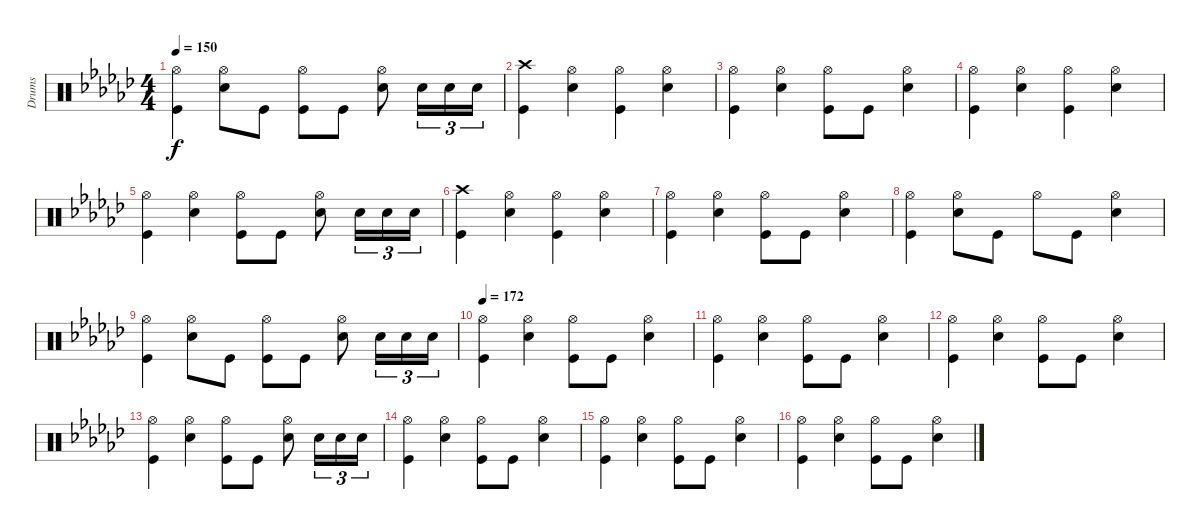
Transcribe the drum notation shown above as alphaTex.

\track ("Drums" "Drums") {instrument percussion}
\staff {score}
\articulation defaults
\ts (4 4)
\tempo 150
\clef neutral
\ks ebminor
("Hi-Hat (open)" "Kick (hit)").4{dy f} ("Hi-Hat (open)" "Snare (hit) 2").8 "Kick (hit)".8 ("Hi-Hat (open)" "Kick (hit)").8 "Kick (hit)".8 ("Hi-Hat (open)" "Snare (hit) 2").8 "Snare (hit) 2".16{tu (3 2)} "Snare (hit) 2".16{tu (3 2)} "Snare (hit) 2".16{tu (3 2)} |
("Crash high (hit)" "Kick (hit)").4 ("Hi-Hat (open)" "Snare (hit) 2").4 ("Hi-Hat (open)" "Kick (hit)").4 ("Hi-Hat (open)" "Snare (hit) 2").4 |
("Hi-Hat (open)" "Kick (hit)").4 ("Hi-Hat (open)" "Snare (hit) 2").4 ("Hi-Hat (open)" "Kick (hit)").8 "Kick (hit)".8 ("Hi-Hat (open)" "Snare (hit) 2").4 |
("Hi-Hat (open)" "Kick (hit)").4 ("Hi-Hat (open)" "Snare (hit) 2").4 ("Hi-Hat (open)" "Kick (hit)").4 ("Hi-Hat (open)" "Snare (hit) 2").4 |
("Hi-Hat (open)" "Kick (hit)").4 ("Hi-Hat (open)" "Snare (hit) 2").4 ("Hi-Hat (open)" "Kick (hit)").8 "Kick (hit)".8 ("Hi-Hat (open)" "Snare (hit) 2").8 "Snare (hit) 2".16{tu (3 2)} "Snare (hit) 2".16{tu (3 2)} "Snare (hit) 2".16{tu (3 2)} |
("Crash high (hit)" "Kick (hit)").4 ("Hi-Hat (open)" "Snare (hit) 2").4 ("Hi-Hat (open)" "Kick (hit)").4 ("Hi-Hat (open)" "Snare (hit) 2").4 |
("Hi-Hat (open)" "Kick (hit)").4 ("Hi-Hat (open)" "Snare (hit) 2").4 ("Hi-Hat (open)" "Kick (hit)").8 "Kick (hit)".8 ("Hi-Hat (open)" "Snare (hit) 2").4 |
("Hi-Hat (open)" "Kick (hit)").4 ("Hi-Hat (open)" "Snare (hit) 2").8 "Kick (hit)".8 "Hi-Hat (open)".8 "Kick (hit)".8 ("Hi-Hat (open)" "Snare (hit) 2").4 |
("Hi-Hat (open)" "Kick (hit)").4 ("Hi-Hat (open)" "Snare (hit) 2").8 "Kick (hit)".8 ("Hi-Hat (open)" "Kick (hit)").8 "Kick (hit)".8 ("Hi-Hat (open)" "Snare (hit) 2").8 "Snare (hit) 2".16{tu (3 2)} "Snare (hit) 2".16{tu (3 2)} "Snare (hit) 2".16{tu (3 2)} |
\tempo 172
("Hi-Hat (open)" "Kick (hit)").4 ("Hi-Hat (open)" "Snare (hit) 2").4 ("Hi-Hat (open)" "Kick (hit)").8 "Kick (hit)".8 ("Hi-Hat (open)" "Snare (hit) 2").4 |
("Hi-Hat (open)" "Kick (hit)").4 ("Hi-Hat (open)" "Snare (hit) 2").4 ("Hi-Hat (open)" "Kick (hit)").8 "Kick (hit)".8 ("Hi-Hat (open)" "Snare (hit) 2").4 |
("Hi-Hat (open)" "Kick (hit)").4 ("Hi-Hat (open)" "Snare (hit) 2").4 ("Hi-Hat (open)" "Kick (hit)").8 "Kick (hit)".8 ("Hi-Hat (open)" "Snare (hit) 2").4 |
("Hi-Hat (open)" "Kick (hit)").4 ("Hi-Hat (open)" "Snare (hit) 2").4 ("Hi-Hat (open)" "Kick (hit)").8 "Kick (hit)".8 ("Hi-Hat (open)" "Snare (hit) 2").8 "Snare (hit) 2".16{tu (3 2)} "Snare (hit) 2".16{tu (3 2)} "Snare (hit) 2".16{tu (3 2)} |
("Hi-Hat (open)" "Kick (hit)").4 ("Hi-Hat (open)" "Snare (hit) 2").4 ("Hi-Hat (open)" "Kick (hit)").8 "Kick (hit)".8 ("Hi-Hat (open)" "Snare (hit) 2").4 |
("Hi-Hat (open)" "Kick (hit)").4 ("Hi-Hat (open)" "Snare (hit) 2").4 ("Hi-Hat (open)" "Kick (hit)").8 "Kick (hit)".8 ("Hi-Hat (open)" "Snare (hit) 2").4 |
("Hi-Hat (open)" "Kick (hit)").4 ("Hi-Hat (open)" "Snare (hit) 2").4 ("Hi-Hat (open)" "Kick (hit)").8 "Kick (hit)".8 ("Hi-Hat (open)" "Snare (hit) 2").4
